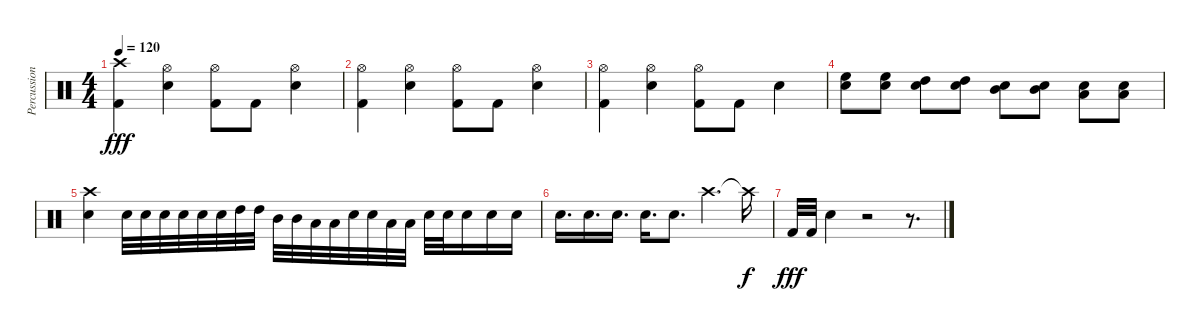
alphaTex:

\track ("Percussion" "Percussion") {instrument percussion}
\staff {score}
\articulation defaults
\ts (4 4)
\tempo 120
\clef neutral
\ks c
("Crash high (hit)" "Kick (hit) 2").4{dy fff} ("Hi-Hat (open)" "Snare (hit) 2").4 ("Hi-Hat (open)" "Kick (hit) 2").8 "Kick (hit) 2".8 ("Hi-Hat (open)" "Snare (hit) 2").4 |
("Hi-Hat (open)" "Kick (hit) 2").4 ("Hi-Hat (open)" "Snare (hit) 2").4 ("Hi-Hat (open)" "Kick (hit) 2").8 "Kick (hit) 2".8 ("Hi-Hat (open)" "Snare (hit) 2").4 |
("Hi-Hat (open)" "Kick (hit) 2").4 ("Hi-Hat (open)" "Snare (hit) 2").4 ("Hi-Hat (open)" "Kick (hit) 2").8 "Kick (hit) 2".8 "Snare (hit) 2".4 |
("Snare (hit) 2" "High Floor Tom (hit)").8 ("Snare (hit) 2" "High Floor Tom (hit)").8 ("Snare (hit) 2" "High Tom (hit)").8 ("Snare (hit) 2" "High Tom (hit)").8 ("Snare (hit) 2" "Mid Tom (hit)").8 ("Snare (hit) 2" "Mid Tom (hit)").8 ("Snare (hit) 2" "Low Tom (hit)").8 ("Low Tom (hit)" "Snare (hit) 2").8 |
("Crash high (hit)" "Snare (hit) 2").4 "Snare (hit) 2".32 "Snare (hit) 2".32 "Snare (hit) 2".32 "Snare (hit) 2".32 "Snare (hit) 2".32 "Snare (hit) 2".32 "High Tom (hit)".32 "High Tom (hit)".32 "Mid Tom (hit)".32 "Mid Tom (hit)".32 "Low Tom (hit)".32 "Low Tom (hit)".32 "Snare (hit) 2".32 "Snare (hit) 2".32 "Low Tom (hit)".32 "Low Tom (hit)".32 "Snare (hit) 2".32 "Snare (hit) 2".32 "Snare (hit) 2".16 "Snare (hit) 2".16 "Snare (hit) 2".16 |
"Snare (hit) 2".16{d} "Snare (hit) 2".16{d} "Snare (hit) 2".16{d} "Snare (hit) 2".16{d} "Snare (hit) 2".8{d} "Crash high (hit)".4{d} "Crash high (hit)"{t}.16{dy f} |
"Kick (hit) 2".32{dy fff} "Kick (hit) 2".32 "Snare (hit) 2".4 r.2 r.8{d}
